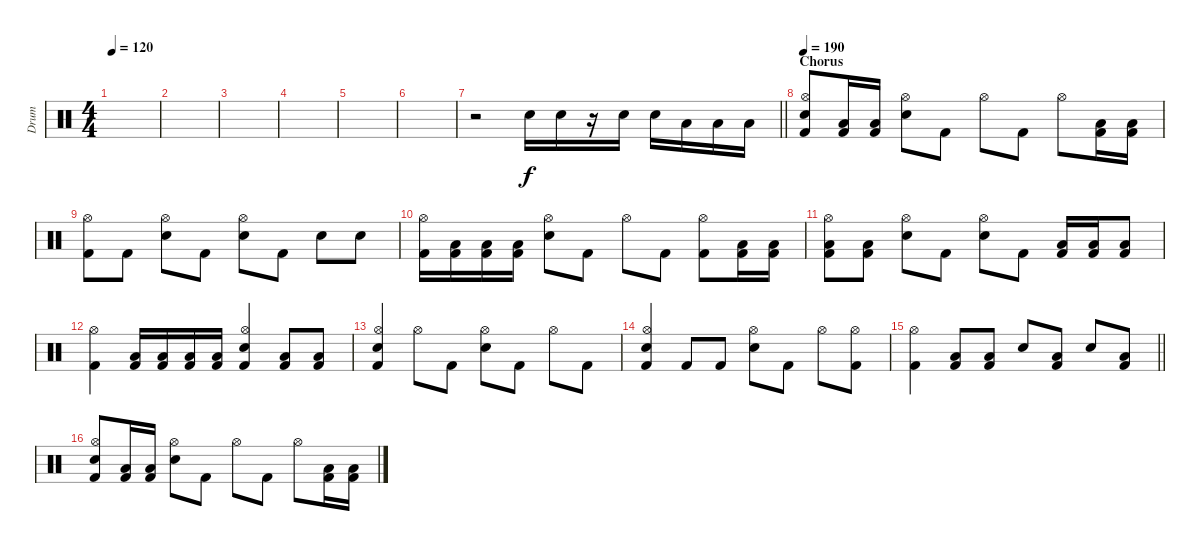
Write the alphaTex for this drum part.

\track ("Drum" "Drum") {instrument percussion}
\staff {score}
\articulation defaults
\ts (4 4)
\tempo 120
\clef neutral
\ks c
|
|
|
|
|
|
\barLineRight lightlight
r.2 "Snare (hit) 2".16 "Snare (hit) 2".16 r.16 "Snare (hit) 2".16 "Snare (hit) 2".16 "Low Tom (hit)".16 "Low Tom (hit)".16 "Low Tom (hit)".16 |
\section ("" "Chorus")
\tempo 190
("Hi-Hat (open)" "Snare (hit) 2" "Kick (hit) 2").8 ("Low Floor Tom (hit)" "Kick (hit) 2").16 ("Low Floor Tom (hit)" "Kick (hit) 2").16 ("Hi-Hat (open)" "Snare (hit) 2").8 "Kick (hit) 2".8 "Hi-Hat (open)".8 "Kick (hit) 2".8 "Hi-Hat (open)".8 ("Low Floor Tom (hit)" "Kick (hit) 2").16 ("Low Floor Tom (hit)" "Kick (hit) 2").16 |
("Hi-Hat (open)" "Kick (hit) 2").8 "Kick (hit) 2".8 ("Hi-Hat (open)" "Snare (hit) 2").8 "Kick (hit) 2".8 ("Hi-Hat (open)" "Snare (hit) 2").8 "Kick (hit) 2".8 "Snare (hit) 2".8 "Snare (hit) 2".8 |
("Hi-Hat (open)" "Kick (hit) 2").16 ("Low Floor Tom (hit)" "Kick (hit) 2").16 ("Low Floor Tom (hit)" "Kick (hit) 2").16 ("Low Floor Tom (hit)" "Kick (hit) 2").16 ("Hi-Hat (open)" "Snare (hit) 2").8 "Kick (hit) 2".8 "Hi-Hat (open)".8 "Kick (hit) 2".8 ("Hi-Hat (open)" "Kick (hit) 2").8 ("Low Floor Tom (hit)" "Kick (hit) 2").16 ("Low Floor Tom (hit)" "Kick (hit) 2").16 |
("Hi-Hat (open)" "Low Floor Tom (hit)" "Kick (hit) 2").8 ("Low Floor Tom (hit)" "Kick (hit) 2").8 ("Hi-Hat (open)" "Snare (hit) 2").8 "Kick (hit) 2".8 ("Hi-Hat (open)" "Snare (hit) 2").8 "Kick (hit) 2".8 ("Low Floor Tom (hit)" "Kick (hit) 2").16 ("Low Floor Tom (hit)" "Kick (hit) 2").16 ("Low Floor Tom (hit)" "Kick (hit) 2").8 |
("Hi-Hat (open)" "Kick (hit) 2").4 ("Low Floor Tom (hit)" "Kick (hit) 2").16 ("Low Floor Tom (hit)" "Kick (hit) 2").16 ("Low Floor Tom (hit)" "Kick (hit) 2").16 ("Low Floor Tom (hit)" "Kick (hit) 2").16 ("Hi-Hat (open)" "Snare (hit) 2" "Kick (hit) 2").4 ("Low Tom (hit)" "Kick (hit) 2").8 ("Low Floor Tom (hit)" "Kick (hit) 2").8 |
("Hi-Hat (open)" "Snare (hit) 2" "Kick (hit) 2").4 "Hi-Hat (open)".8 "Kick (hit) 2".8 ("Hi-Hat (open)" "Snare (hit) 2").8 "Kick (hit) 2".8 "Hi-Hat (open)".8 "Kick (hit) 2".8 |
("Hi-Hat (open)" "Snare (hit) 2" "Kick (hit) 2").4 "Kick (hit) 2".8 "Kick (hit) 2".8 ("Hi-Hat (open)" "Snare (hit) 2").8 "Kick (hit) 2".8 "Hi-Hat (open)".8 ("Hi-Hat (open)" "Kick (hit) 2").8 |
\barLineRight lightlight
("Hi-Hat (open)" "Kick (hit) 2").4 ("Low Floor Tom (hit)" "Kick (hit) 2").8 ("Low Floor Tom (hit)" "Kick (hit) 2").8 "Snare (hit) 2".8 ("Low Floor Tom (hit)" "Kick (hit) 2").8 "Snare (hit) 2".8 ("Low Floor Tom (hit)" "Kick (hit) 2").8 |
("Hi-Hat (open)" "Snare (hit) 2" "Kick (hit) 2").8 ("Low Floor Tom (hit)" "Kick (hit) 2").16 ("Low Floor Tom (hit)" "Kick (hit) 2").16 ("Hi-Hat (open)" "Snare (hit) 2").8 "Kick (hit) 2".8 "Hi-Hat (open)".8 "Kick (hit) 2".8 "Hi-Hat (open)".8 ("Low Floor Tom (hit)" "Kick (hit) 2").16 ("Low Floor Tom (hit)" "Kick (hit) 2").16
